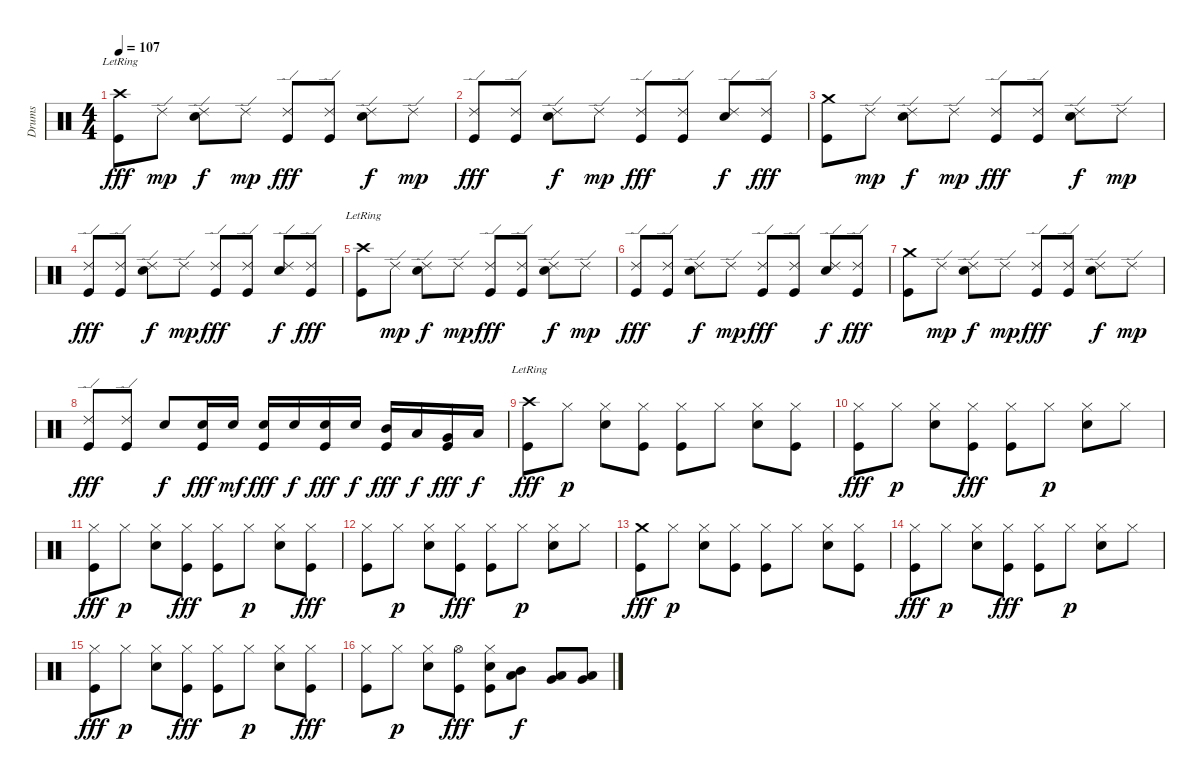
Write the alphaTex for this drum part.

\track ("Drums" "Drums") {instrument percussion}
\staff {score}
\articulation defaults
\ts (4 4)
\tempo 107
\clef neutral
\ks c
("Crash high (hit)"{lr} "Kick (hit)").8{dy fff} "Ride (edge) 2".8{dy mp} ("Ride (edge) 2" "Electric Snare (hit)").8{dy f} "Ride (edge) 2".8{dy mp} ("Ride (edge) 2" "Kick (hit)").8{dy fff} ("Ride (edge) 2" "Kick (hit)").8 ("Ride (edge) 2" "Electric Snare (hit)").8{dy f} "Ride (edge) 2".8{dy mp} |
("Ride (edge) 2" "Kick (hit)").8{dy fff} ("Ride (edge) 2" "Kick (hit)").8 ("Ride (edge) 2" "Electric Snare (hit)").8{dy f} "Ride (edge) 2".8{dy mp} ("Ride (edge) 2" "Kick (hit)").8{dy fff} ("Ride (edge) 2" "Kick (hit)").8 ("Ride (edge) 2" "Electric Snare (hit)").8{dy f} ("Ride (edge) 2" "Kick (hit)").8{dy fff} |
("Crash medium (hit)" "Kick (hit)").8 "Ride (edge) 2".8{dy mp} ("Ride (edge) 2" "Electric Snare (hit)").8{dy f} "Ride (edge) 2".8{dy mp} ("Ride (edge) 2" "Kick (hit)").8{dy fff} ("Ride (edge) 2" "Kick (hit)").8 ("Ride (edge) 2" "Electric Snare (hit)").8{dy f} "Ride (edge) 2".8{dy mp} |
("Ride (edge) 2" "Kick (hit)").8{dy fff} ("Ride (edge) 2" "Kick (hit)").8 ("Ride (edge) 2" "Electric Snare (hit)").8{dy f} "Ride (edge) 2".8{dy mp} ("Ride (edge) 2" "Kick (hit)").8{dy fff} ("Ride (edge) 2" "Kick (hit)").8 ("Ride (edge) 2" "Electric Snare (hit)").8{dy f} ("Ride (edge) 2" "Kick (hit)").8{dy fff} |
("Crash high (hit)"{lr} "Kick (hit)").8 "Ride (edge) 2".8{dy mp} ("Ride (edge) 2" "Electric Snare (hit)").8{dy f} "Ride (edge) 2".8{dy mp} ("Ride (edge) 2" "Kick (hit)").8{dy fff} ("Ride (edge) 2" "Kick (hit)").8 ("Ride (edge) 2" "Electric Snare (hit)").8{dy f} "Ride (edge) 2".8{dy mp} |
("Ride (edge) 2" "Kick (hit)").8{dy fff} ("Ride (edge) 2" "Kick (hit)").8 ("Ride (edge) 2" "Electric Snare (hit)").8{dy f} "Ride (edge) 2".8{dy mp} ("Ride (edge) 2" "Kick (hit)").8{dy fff} ("Ride (edge) 2" "Kick (hit)").8 ("Ride (edge) 2" "Electric Snare (hit)").8{dy f} ("Ride (edge) 2" "Kick (hit)").8{dy fff} |
("Crash medium (hit)" "Kick (hit)").8 "Ride (edge) 2".8{dy mp} ("Ride (edge) 2" "Electric Snare (hit)").8{dy f} "Ride (edge) 2".8{dy mp} ("Ride (edge) 2" "Kick (hit)").8{dy fff} ("Ride (edge) 2" "Kick (hit)").8 ("Ride (edge) 2" "Electric Snare (hit)").8{dy f} "Ride (edge) 2".8{dy mp} |
("Ride (edge) 2" "Kick (hit)").8{dy fff} ("Ride (edge) 2" "Kick (hit)").8 "Electric Snare (hit)".8{dy f} ("Electric Snare (hit)" "Kick (hit)").16{dy fff} "Electric Snare (hit)".16{dy mf} ("Electric Snare (hit)" "Kick (hit)").16{dy fff} "Electric Snare (hit)".16{dy f} ("Electric Snare (hit)" "Kick (hit)").16{dy fff} "Electric Snare (hit)".16{dy f} ("Mid Tom (hit)" "Kick (hit)").16{dy fff} "Low Tom (hit)".16{dy f} ("Very Low Tom (hit)" "Kick (hit)").16{dy fff} "Low Floor Tom (hit)".16{dy f} |
("Crash high (hit)"{lr} "Kick (hit)").8{dy fff} "Hi-Hat (closed)".8{dy p} ("Electric Snare (hit)" "Hi-Hat (closed)").8 ("Hi-Hat (closed)" "Kick (hit)").8 ("Hi-Hat (closed)" "Kick (hit)").8 "Hi-Hat (closed)".8 ("Electric Snare (hit)" "Hi-Hat (closed)").8 ("Hi-Hat (closed)" "Kick (hit)").8 |
("Hi-Hat (closed)" "Kick (hit)").8{dy fff} "Hi-Hat (closed)".8{dy p} ("Electric Snare (hit)" "Hi-Hat (closed)").8 ("Hi-Hat (closed)" "Kick (hit)").8{dy fff} ("Hi-Hat (closed)" "Kick (hit)").8 "Hi-Hat (closed)".8{dy p} ("Electric Snare (hit)" "Hi-Hat (closed)").8 "Hi-Hat (closed)".8 |
("Hi-Hat (closed)" "Kick (hit)").8{dy fff} "Hi-Hat (closed)".8{dy p} ("Electric Snare (hit)" "Hi-Hat (closed)").8 ("Hi-Hat (closed)" "Kick (hit)").8{dy fff} ("Hi-Hat (closed)" "Kick (hit)").8 "Hi-Hat (closed)".8{dy p} ("Electric Snare (hit)" "Hi-Hat (closed)").8 ("Hi-Hat (closed)" "Kick (hit)").8{dy fff} |
("Hi-Hat (closed)" "Kick (hit)").8 "Hi-Hat (closed)".8{dy p} ("Electric Snare (hit)" "Hi-Hat (closed)").8 ("Hi-Hat (closed)" "Kick (hit)").8{dy fff} ("Hi-Hat (closed)" "Kick (hit)").8 "Hi-Hat (closed)".8{dy p} ("Electric Snare (hit)" "Hi-Hat (closed)").8 "Hi-Hat (closed)".8 |
("Crash medium (hit)" "Kick (hit)").8{dy fff} "Hi-Hat (closed)".8{dy p} ("Electric Snare (hit)" "Hi-Hat (closed)").8 ("Hi-Hat (closed)" "Kick (hit)").8 ("Hi-Hat (closed)" "Kick (hit)").8 "Hi-Hat (closed)".8 ("Electric Snare (hit)" "Hi-Hat (closed)").8 ("Hi-Hat (closed)" "Kick (hit)").8 |
("Hi-Hat (closed)" "Kick (hit)").8{dy fff} "Hi-Hat (closed)".8{dy p} ("Electric Snare (hit)" "Hi-Hat (closed)").8 ("Hi-Hat (closed)" "Kick (hit)").8{dy fff} ("Hi-Hat (closed)" "Kick (hit)").8 "Hi-Hat (closed)".8{dy p} ("Electric Snare (hit)" "Hi-Hat (closed)").8 "Hi-Hat (closed)".8 |
("Hi-Hat (closed)" "Kick (hit)").8{dy fff} "Hi-Hat (closed)".8{dy p} ("Electric Snare (hit)" "Hi-Hat (closed)").8 ("Hi-Hat (closed)" "Kick (hit)").8{dy fff} ("Hi-Hat (closed)" "Kick (hit)").8 "Hi-Hat (closed)".8{dy p} ("Electric Snare (hit)" "Hi-Hat (closed)").8 ("Hi-Hat (closed)" "Kick (hit)").8{dy fff} |
("Hi-Hat (closed)" "Kick (hit)").8 "Hi-Hat (closed)".8{dy p} ("Electric Snare (hit)" "Hi-Hat (closed)").8 ("Hi-Hat (open)" "Kick (hit)").8{dy fff} ("Electric Snare (hit)" "Hi-Hat (closed)" "Kick (hit)").8 ("Mid Tom (hit)" "Low Tom (hit)").8{dy f} ("Low Tom (hit)" "Very Low Tom (hit)").8 ("Very Low Tom (hit)" "Low Floor Tom (hit)").8
